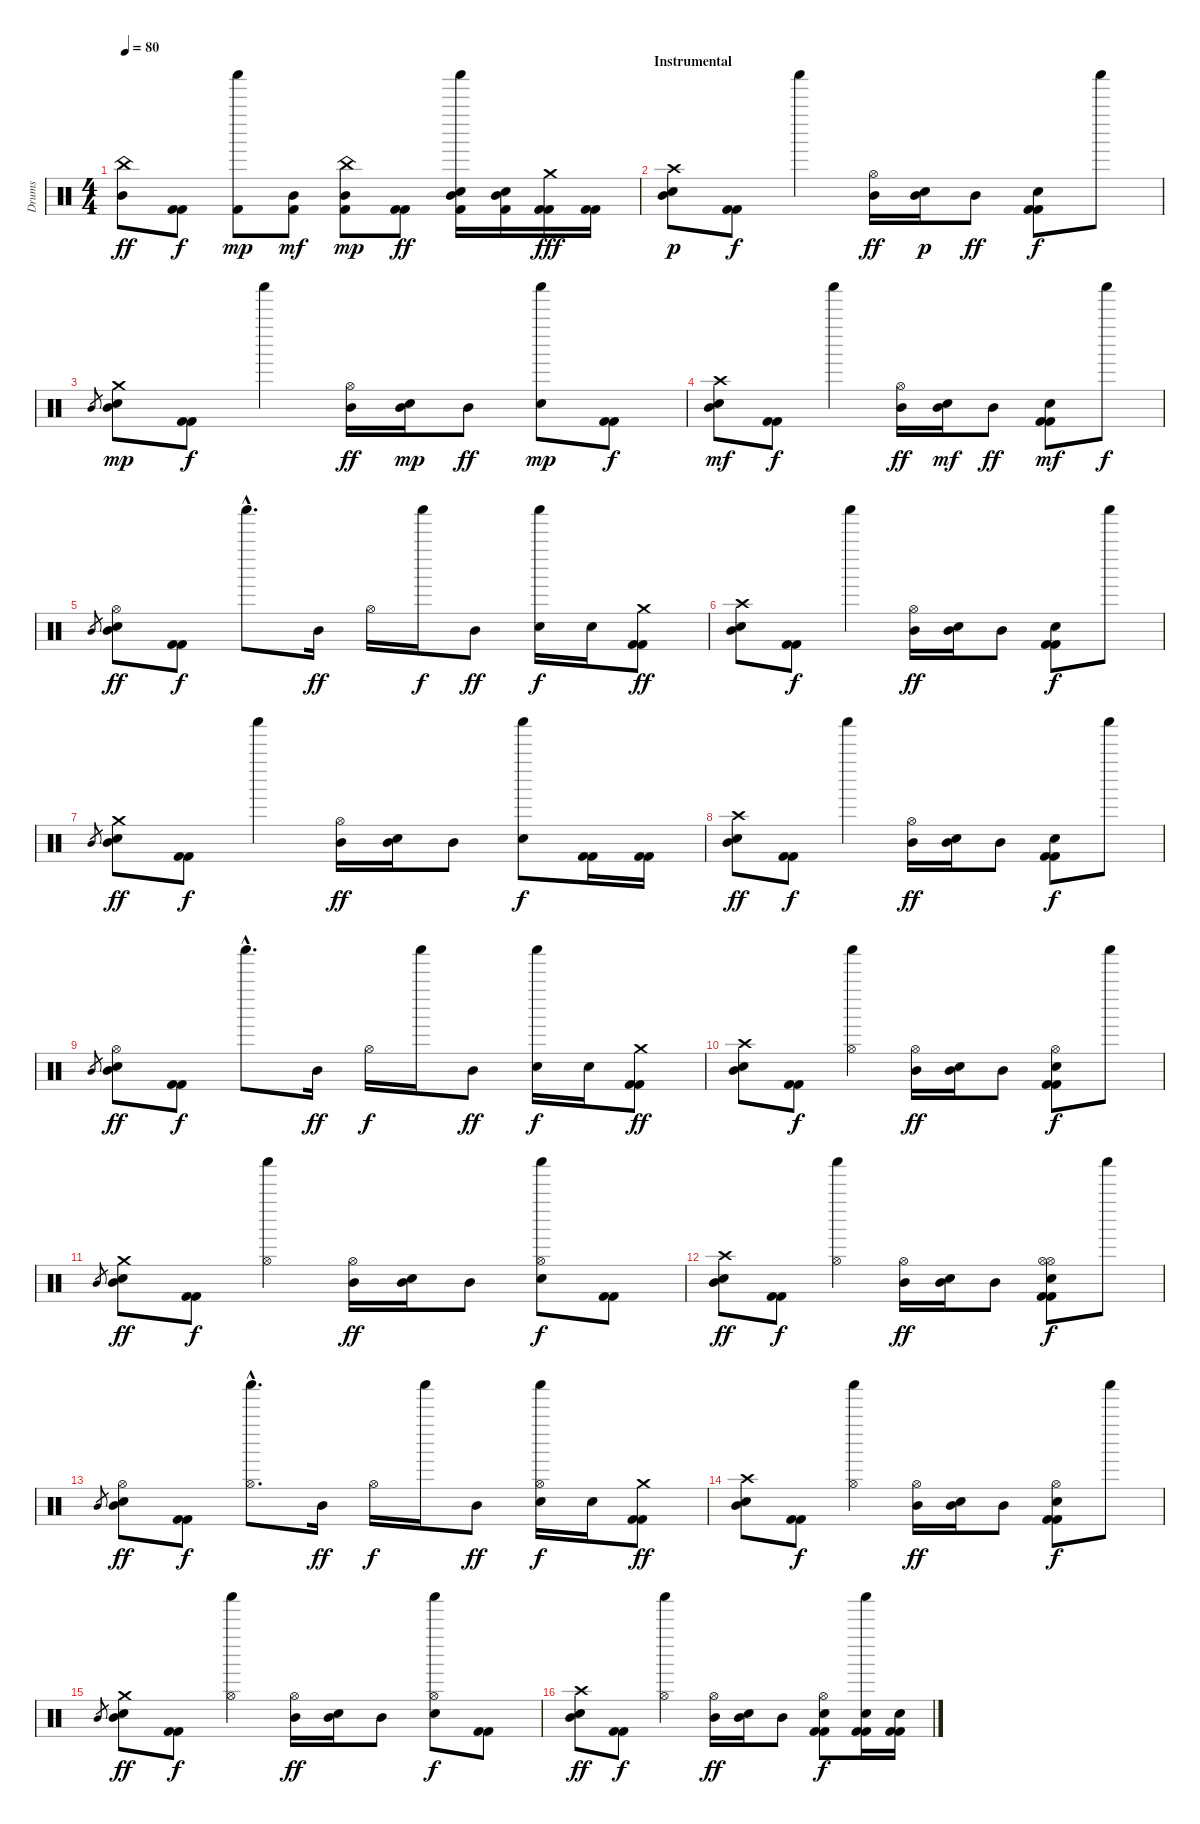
\track ("Drums" "Drums") {instrument percussion}
\staff {score}
\articulation defaults
\ts (4 4)
\tempo 80
\clef neutral
\ks c
("China (hit)" "Mid Tom (hit)").8{bd 60 dy ff} ("Kick (hit) 2" "Kick (hit) 2").8{dy f} ("Shaker (hit)" "Kick (hit) 2").8{dy mp} ("Mid Tom (hit)" "Kick (hit) 2").8{dy mf} ("China (hit)" "Mid Tom (hit)" "Kick (hit) 2").8{dy mp} ("Kick (hit) 2" "Kick (hit) 2").8{dy ff} ("Shaker (hit)" "Mid Tom (hit)" "Electric Snare (hit)" "Kick (hit) 2").16 ("Mid Tom (hit)" "Electric Snare (hit)" "Kick (hit) 2").16 ("Crash medium (hit)" "Kick (hit) 2" "Kick (hit) 2").16{dy fff} ("Kick (hit) 2" "Kick (hit) 2").16 |
\section ("" "Instrumental")
("Crash high (hit)" "Mid Tom (hit)" "Electric Snare (hit)").8{bd 60 dy p volume 16} ("Kick (hit) 2" "Kick (hit) 2").8{dy f} "Shaker (hit)".4 ("Hi-Hat (open)" "Mid Tom (hit)").16{dy ff} ("Mid Tom (hit)" "Electric Snare (hit)").16{dy p} "Mid Tom (hit)".8{dy ff} ("Electric Snare (hit)" "Kick (hit) 2" "Kick (hit) 2").8{dy f} "Shaker (hit)".8 |
"Mid Tom (hit)".8{gr} ("Crash medium (hit)" "Mid Tom (hit)" "Electric Snare (hit)").8{dy mp} ("Kick (hit) 2" "Kick (hit) 2").8{dy f} "Shaker (hit)".4 ("Hi-Hat (open)" "Mid Tom (hit)").16{dy ff} ("Mid Tom (hit)" "Electric Snare (hit)").16{dy mp} "Mid Tom (hit)".8{dy ff} ("Shaker (hit)" "Electric Snare (hit)").8{dy mp} ("Kick (hit) 2" "Kick (hit) 2").8{dy f} |
("Crash high (hit)" "Mid Tom (hit)" "Electric Snare (hit)").8{bd 60 dy mf} ("Kick (hit) 2" "Kick (hit) 2").8{dy f} "Shaker (hit)".4 ("Hi-Hat (open)" "Mid Tom (hit)").16{dy ff} ("Mid Tom (hit)" "Electric Snare (hit)").16{dy mf} "Mid Tom (hit)".8{dy ff} ("Electric Snare (hit)" "Kick (hit) 2" "Kick (hit) 2").8{dy mf} "Shaker (hit)".8{dy f} |
"Mid Tom (hit)".8{gr} ("Hi-Hat (open)" "Mid Tom (hit)" "Electric Snare (hit)").8{dy ff} ("Kick (hit) 2" "Kick (hit) 2").8{dy f} "Shaker (hit)"{hac}.8{d} "Mid Tom (hit)".16{dy ff} "Hi-Hat (open)".16 "Shaker (hit)".16{dy f} "Mid Tom (hit)".8{dy ff} ("Shaker (hit)" "Electric Snare (hit)").16{dy f} "Electric Snare (hit)".16 ("Crash medium (hit)" "Kick (hit) 2" "Kick (hit) 2").8{dy ff} |
("Crash high (hit)" "Mid Tom (hit)" "Electric Snare (hit)").8{bd 60} ("Kick (hit) 2" "Kick (hit) 2").8{dy f} "Shaker (hit)".4 ("Hi-Hat (open)" "Mid Tom (hit)").16{dy ff} ("Mid Tom (hit)" "Electric Snare (hit)").16 "Mid Tom (hit)".8 ("Electric Snare (hit)" "Kick (hit) 2" "Kick (hit) 2").8{dy f} "Shaker (hit)".8 |
"Mid Tom (hit)".8{gr} ("Crash medium (hit)" "Mid Tom (hit)" "Electric Snare (hit)").8{dy ff} ("Kick (hit) 2" "Kick (hit) 2").8{dy f} "Shaker (hit)".4 ("Hi-Hat (open)" "Mid Tom (hit)").16{dy ff} ("Mid Tom (hit)" "Electric Snare (hit)").16 "Mid Tom (hit)".8 ("Shaker (hit)" "Electric Snare (hit)").8{dy f} ("Kick (hit) 2" "Kick (hit) 2").16 ("Kick (hit) 2" "Kick (hit) 2").16 |
("Crash high (hit)" "Mid Tom (hit)" "Electric Snare (hit)").8{bd 60 dy ff} ("Kick (hit) 2" "Kick (hit) 2").8{dy f} "Shaker (hit)".4 ("Hi-Hat (open)" "Mid Tom (hit)").16{dy ff} ("Mid Tom (hit)" "Electric Snare (hit)").16 "Mid Tom (hit)".8 ("Electric Snare (hit)" "Kick (hit) 2" "Kick (hit) 2").8{dy f} "Shaker (hit)".8 |
"Mid Tom (hit)".8{gr} ("Hi-Hat (open)" "Mid Tom (hit)" "Electric Snare (hit)").8{dy ff} ("Kick (hit) 2" "Kick (hit) 2").8{dy f} "Shaker (hit)"{hac}.8{d} "Mid Tom (hit)".16{dy ff} "Hi-Hat (open)".16{dy f} "Shaker (hit)".16 "Mid Tom (hit)".8{dy ff} ("Shaker (hit)" "Electric Snare (hit)").16{dy f} "Electric Snare (hit)".16 ("Crash medium (hit)" "Kick (hit) 2" "Kick (hit) 2").8{dy ff} |
("Crash high (hit)" "Mid Tom (hit)" "Electric Snare (hit)").8{bd 60} ("Kick (hit) 2" "Kick (hit) 2").8{dy f} ("Shaker (hit)" "Hi-Hat (open)").4 ("Hi-Hat (open)" "Mid Tom (hit)").16{dy ff} ("Mid Tom (hit)" "Electric Snare (hit)").16 "Mid Tom (hit)".8 ("Hi-Hat (open)" "Electric Snare (hit)" "Kick (hit) 2" "Kick (hit) 2").8{dy f} "Shaker (hit)".8 |
"Mid Tom (hit)".8{gr} ("Crash medium (hit)" "Mid Tom (hit)" "Electric Snare (hit)").8{dy ff} ("Kick (hit) 2" "Kick (hit) 2").8{dy f} ("Shaker (hit)" "Hi-Hat (open)").4 ("Hi-Hat (open)" "Mid Tom (hit)").16{dy ff} ("Mid Tom (hit)" "Electric Snare (hit)").16 "Mid Tom (hit)".8 ("Shaker (hit)" "Hi-Hat (open)" "Electric Snare (hit)").8{dy f} ("Kick (hit) 2" "Kick (hit) 2").8 |
("Crash high (hit)" "Mid Tom (hit)" "Electric Snare (hit)").8{bd 60 dy ff} ("Kick (hit) 2" "Kick (hit) 2").8{dy f} ("Shaker (hit)" "Hi-Hat (open)").4 ("Hi-Hat (open)" "Mid Tom (hit)").16{dy ff} ("Mid Tom (hit)" "Electric Snare (hit)").16 "Mid Tom (hit)".8 ("Hi-Hat (open)" "Hi-Hat (open)" "Electric Snare (hit)" "Kick (hit) 2" "Kick (hit) 2").8{dy f} "Shaker (hit)".8 |
"Mid Tom (hit)".8{gr} ("Hi-Hat (open)" "Mid Tom (hit)" "Electric Snare (hit)").8{dy ff} ("Kick (hit) 2" "Kick (hit) 2").8{dy f} ("Shaker (hit)"{hac} "Hi-Hat (open)"{hac}).8{d} "Mid Tom (hit)".16{dy ff} "Hi-Hat (open)".16{dy f} "Shaker (hit)".16 "Mid Tom (hit)".8{dy ff} ("Shaker (hit)" "Hi-Hat (open)" "Electric Snare (hit)").16{dy f} "Electric Snare (hit)".16 ("Crash medium (hit)" "Kick (hit) 2" "Kick (hit) 2").8{dy ff} |
("Crash high (hit)" "Mid Tom (hit)" "Electric Snare (hit)").8{bd 60} ("Kick (hit) 2" "Kick (hit) 2").8{dy f} ("Shaker (hit)" "Hi-Hat (open)").4 ("Hi-Hat (open)" "Mid Tom (hit)").16{dy ff} ("Mid Tom (hit)" "Electric Snare (hit)").16 "Mid Tom (hit)".8 ("Hi-Hat (open)" "Electric Snare (hit)" "Kick (hit) 2" "Kick (hit) 2").8{dy f} "Shaker (hit)".8 |
"Mid Tom (hit)".8{gr} ("Crash medium (hit)" "Mid Tom (hit)" "Electric Snare (hit)").8{dy ff} ("Kick (hit) 2" "Kick (hit) 2").8{dy f} ("Shaker (hit)" "Hi-Hat (open)").4 ("Hi-Hat (open)" "Mid Tom (hit)").16{dy ff} ("Mid Tom (hit)" "Electric Snare (hit)").16 "Mid Tom (hit)".8 ("Shaker (hit)" "Hi-Hat (open)" "Electric Snare (hit)").8{dy f} ("Kick (hit) 2" "Kick (hit) 2").8 |
("Crash high (hit)" "Mid Tom (hit)" "Electric Snare (hit)").8{bd 60 dy ff} ("Kick (hit) 2" "Kick (hit) 2").8{dy f} ("Shaker (hit)" "Hi-Hat (open)").4 ("Hi-Hat (open)" "Mid Tom (hit)").16{dy ff} ("Mid Tom (hit)" "Electric Snare (hit)").16 "Mid Tom (hit)".8 ("Hi-Hat (open)" "Electric Snare (hit)" "Kick (hit) 2" "Kick (hit) 2").8{dy f} ("Shaker (hit)" "Electric Snare (hit)" "Kick (hit) 2" "Kick (hit) 2").16 ("Electric Snare (hit)" "Kick (hit) 2" "Kick (hit) 2").16
